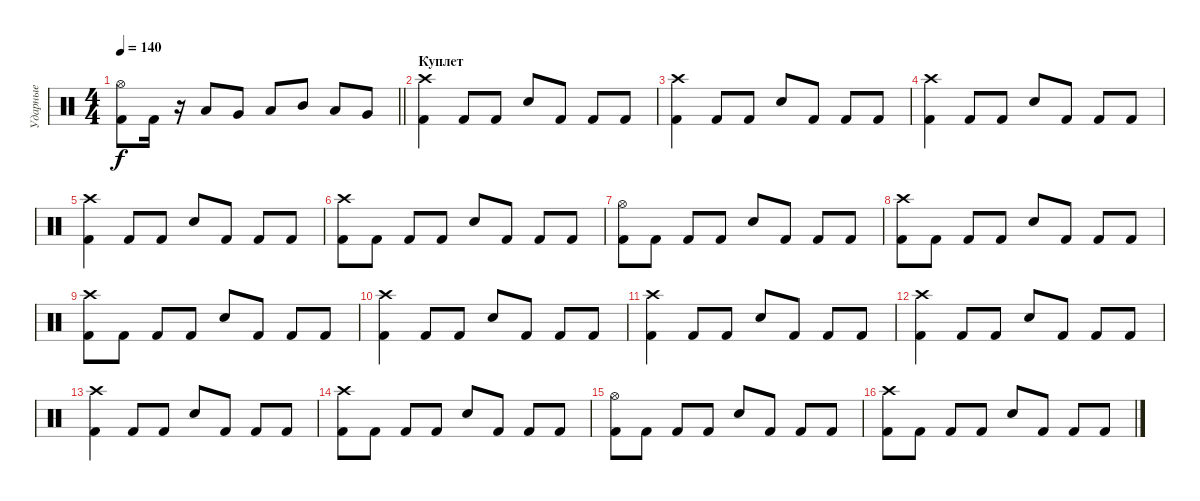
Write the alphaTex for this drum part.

\track ("Ударные" "Ударные") {instrument percussion}
\staff {score}
\articulation defaults
\ts (4 4)
\tempo 140
\clef neutral
\barLineRight lightlight
\ks c
("Hi-Hat (open)" "Kick (hit) 2").8{dy f} "Kick (hit) 2".16 r.16 "Low Tom (hit)".8 "Very Low Tom (hit)".8 "Low Floor Tom (hit)".8 "Mid Tom (hit)".8 "Low Tom (hit)".8 "Very Low Tom (hit)".8 |
\section ("" "Куплет")
("Crash high (hit)" "Kick (hit) 2").4 "Kick (hit) 2".8 "Kick (hit) 2".8 "Electric Snare (hit)".8 "Kick (hit) 2".8 "Kick (hit) 2".8 "Kick (hit) 2".8 |
("Crash high (hit)" "Kick (hit) 2").4 "Kick (hit) 2".8 "Kick (hit) 2".8 "Electric Snare (hit)".8 "Kick (hit) 2".8 "Kick (hit) 2".8 "Kick (hit) 2".8 |
("Crash high (hit)" "Kick (hit) 2").4 "Kick (hit) 2".8 "Kick (hit) 2".8 "Electric Snare (hit)".8 "Kick (hit) 2".8 "Kick (hit) 2".8 "Kick (hit) 2".8 |
("Crash high (hit)" "Kick (hit) 2").4 "Kick (hit) 2".8 "Kick (hit) 2".8 "Electric Snare (hit)".8 "Kick (hit) 2".8 "Kick (hit) 2".8 "Kick (hit) 2".8 |
("Crash high (hit)" "Kick (hit) 2").8 "Kick (hit) 2".8 "Kick (hit) 2".8 "Kick (hit) 2".8 "Electric Snare (hit)".8 "Kick (hit) 2".8 "Kick (hit) 2".8 "Kick (hit) 2".8 |
("Hi-Hat (open)" "Kick (hit) 2").8 "Kick (hit) 2".8 "Kick (hit) 2".8 "Kick (hit) 2".8 "Electric Snare (hit)".8 "Kick (hit) 2".8 "Kick (hit) 2".8 "Kick (hit) 2".8 |
("Crash high (hit)" "Kick (hit) 2").8 "Kick (hit) 2".8 "Kick (hit) 2".8 "Kick (hit) 2".8 "Electric Snare (hit)".8 "Kick (hit) 2".8 "Kick (hit) 2".8 "Kick (hit) 2".8 |
("Crash high (hit)" "Kick (hit) 2").8 "Kick (hit) 2".8 "Kick (hit) 2".8 "Kick (hit) 2".8 "Electric Snare (hit)".8 "Kick (hit) 2".8 "Kick (hit) 2".8 "Kick (hit) 2".8 |
("Crash high (hit)" "Kick (hit) 2").4 "Kick (hit) 2".8 "Kick (hit) 2".8 "Electric Snare (hit)".8 "Kick (hit) 2".8 "Kick (hit) 2".8 "Kick (hit) 2".8 |
("Crash high (hit)" "Kick (hit) 2").4 "Kick (hit) 2".8 "Kick (hit) 2".8 "Electric Snare (hit)".8 "Kick (hit) 2".8 "Kick (hit) 2".8 "Kick (hit) 2".8 |
("Crash high (hit)" "Kick (hit) 2").4 "Kick (hit) 2".8 "Kick (hit) 2".8 "Electric Snare (hit)".8 "Kick (hit) 2".8 "Kick (hit) 2".8 "Kick (hit) 2".8 |
("Crash high (hit)" "Kick (hit) 2").4 "Kick (hit) 2".8 "Kick (hit) 2".8 "Electric Snare (hit)".8 "Kick (hit) 2".8 "Kick (hit) 2".8 "Kick (hit) 2".8 |
("Crash high (hit)" "Kick (hit) 2").8 "Kick (hit) 2".8 "Kick (hit) 2".8 "Kick (hit) 2".8 "Electric Snare (hit)".8 "Kick (hit) 2".8 "Kick (hit) 2".8 "Kick (hit) 2".8 |
("Hi-Hat (open)" "Kick (hit) 2").8 "Kick (hit) 2".8 "Kick (hit) 2".8 "Kick (hit) 2".8 "Electric Snare (hit)".8 "Kick (hit) 2".8 "Kick (hit) 2".8 "Kick (hit) 2".8 |
("Crash high (hit)" "Kick (hit) 2").8 "Kick (hit) 2".8 "Kick (hit) 2".8 "Kick (hit) 2".8 "Electric Snare (hit)".8 "Kick (hit) 2".8 "Kick (hit) 2".8 "Kick (hit) 2".8
